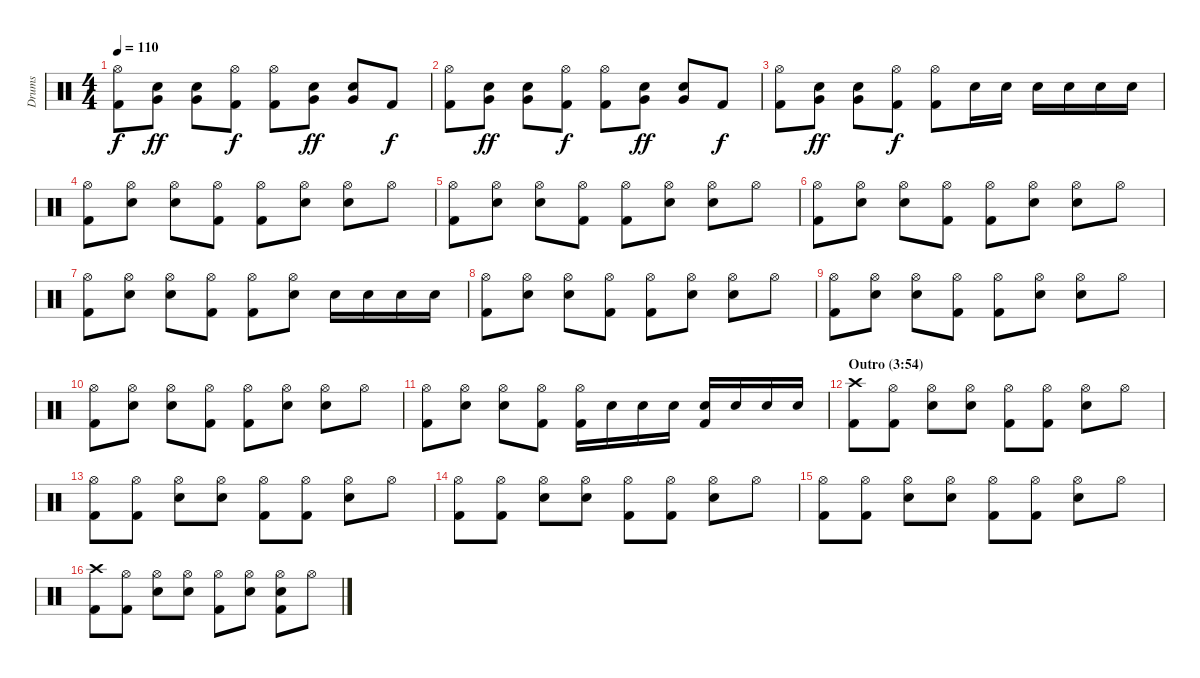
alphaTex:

\track ("Drums" "Drums") {instrument percussion}
\staff {score}
\articulation defaults
\ts (4 4)
\tempo 110
\clef neutral
\ks c
("Hi-Hat (open)" "Kick (hit) 2").8{dy f} ("Snare (hit) 2" "Very Low Tom (hit)").8{dy ff} ("Snare (hit) 2" "Very Low Tom (hit)").8 ("Hi-Hat (open)" "Kick (hit) 2").8{dy f} ("Hi-Hat (open)" "Kick (hit) 2").8 ("Snare (hit) 2" "Very Low Tom (hit)").8{dy ff} ("Snare (hit) 2" "Very Low Tom (hit)").8 "Kick (hit) 2".8{dy f} |
("Hi-Hat (open)" "Kick (hit) 2").8 ("Snare (hit) 2" "Very Low Tom (hit)").8{dy ff} ("Snare (hit) 2" "Very Low Tom (hit)").8 ("Hi-Hat (open)" "Kick (hit) 2").8{dy f} ("Hi-Hat (open)" "Kick (hit) 2").8 ("Snare (hit) 2" "Very Low Tom (hit)").8{dy ff} ("Snare (hit) 2" "Very Low Tom (hit)").8 "Kick (hit) 2".8{dy f} |
("Hi-Hat (open)" "Kick (hit) 2").8 ("Snare (hit) 2" "Very Low Tom (hit)").8{dy ff} ("Snare (hit) 2" "Very Low Tom (hit)").8 ("Hi-Hat (open)" "Kick (hit) 2").8{dy f} ("Hi-Hat (open)" "Kick (hit) 2").8 "Snare (hit) 2".16 "Snare (hit) 2".16 "Snare (hit) 2".16 "Snare (hit) 2".16 "Snare (hit) 2".16 "Snare (hit) 2".16 |
("Hi-Hat (open)" "Kick (hit) 2").8 ("Hi-Hat (open)" "Snare (hit) 2").8 ("Hi-Hat (open)" "Snare (hit) 2").8 ("Hi-Hat (open)" "Kick (hit) 2").8 ("Hi-Hat (open)" "Kick (hit) 2").8 ("Hi-Hat (open)" "Snare (hit) 2").8 ("Hi-Hat (open)" "Snare (hit) 2").8 "Hi-Hat (open)".8 |
("Hi-Hat (open)" "Kick (hit) 2").8 ("Hi-Hat (open)" "Snare (hit) 2").8 ("Hi-Hat (open)" "Snare (hit) 2").8 ("Hi-Hat (open)" "Kick (hit) 2").8 ("Hi-Hat (open)" "Kick (hit) 2").8 ("Hi-Hat (open)" "Snare (hit) 2").8 ("Hi-Hat (open)" "Snare (hit) 2").8 "Hi-Hat (open)".8 |
("Hi-Hat (open)" "Kick (hit) 2").8 ("Hi-Hat (open)" "Snare (hit) 2").8 ("Hi-Hat (open)" "Snare (hit) 2").8 ("Hi-Hat (open)" "Kick (hit) 2").8 ("Hi-Hat (open)" "Kick (hit) 2").8 ("Hi-Hat (open)" "Snare (hit) 2").8 ("Hi-Hat (open)" "Snare (hit) 2").8 "Hi-Hat (open)".8 |
("Hi-Hat (open)" "Kick (hit) 2").8 ("Hi-Hat (open)" "Snare (hit) 2").8 ("Hi-Hat (open)" "Snare (hit) 2").8 ("Hi-Hat (open)" "Kick (hit) 2").8 ("Hi-Hat (open)" "Kick (hit) 2").8 ("Hi-Hat (open)" "Snare (hit) 2").8 "Snare (hit) 2".16 "Snare (hit) 2".16 "Snare (hit) 2".16 "Snare (hit) 2".16 |
("Hi-Hat (open)" "Kick (hit) 2").8 ("Hi-Hat (open)" "Snare (hit) 2").8 ("Hi-Hat (open)" "Snare (hit) 2").8 ("Hi-Hat (open)" "Kick (hit) 2").8 ("Hi-Hat (open)" "Kick (hit) 2").8 ("Hi-Hat (open)" "Snare (hit) 2").8 ("Hi-Hat (open)" "Snare (hit) 2").8 "Hi-Hat (open)".8 |
("Hi-Hat (open)" "Kick (hit) 2").8 ("Hi-Hat (open)" "Snare (hit) 2").8 ("Hi-Hat (open)" "Snare (hit) 2").8 ("Hi-Hat (open)" "Kick (hit) 2").8 ("Hi-Hat (open)" "Kick (hit) 2").8 ("Hi-Hat (open)" "Snare (hit) 2").8 ("Hi-Hat (open)" "Snare (hit) 2").8 "Hi-Hat (open)".8 |
("Hi-Hat (open)" "Kick (hit) 2").8 ("Hi-Hat (open)" "Snare (hit) 2").8 ("Hi-Hat (open)" "Snare (hit) 2").8 ("Hi-Hat (open)" "Kick (hit) 2").8 ("Hi-Hat (open)" "Kick (hit) 2").8 ("Hi-Hat (open)" "Snare (hit) 2").8 ("Hi-Hat (open)" "Snare (hit) 2").8 "Hi-Hat (open)".8 |
("Hi-Hat (open)" "Kick (hit) 2").8 ("Hi-Hat (open)" "Snare (hit) 2").8 ("Hi-Hat (open)" "Snare (hit) 2").8 ("Hi-Hat (open)" "Kick (hit) 2").8 ("Hi-Hat (open)" "Kick (hit) 2").16 "Snare (hit) 2".16 "Snare (hit) 2".16 "Snare (hit) 2".16 ("Snare (hit) 2" "Kick (hit) 2").16 "Snare (hit) 2".16 "Snare (hit) 2".16 "Snare (hit) 2".16 |
\section ("" "Outro (3:54)")
("Crash high (hit)" "Kick (hit) 2").8 ("Hi-Hat (open)" "Kick (hit) 2").8 ("Hi-Hat (open)" "Snare (hit) 2").8 ("Hi-Hat (open)" "Snare (hit) 2").8 ("Hi-Hat (open)" "Kick (hit) 2").8 ("Hi-Hat (open)" "Kick (hit) 2").8 ("Hi-Hat (open)" "Snare (hit) 2").8 "Hi-Hat (open)".8 |
("Hi-Hat (open)" "Kick (hit) 2").8 ("Hi-Hat (open)" "Kick (hit) 2").8 ("Hi-Hat (open)" "Snare (hit) 2").8 ("Hi-Hat (open)" "Snare (hit) 2").8 ("Hi-Hat (open)" "Kick (hit) 2").8 ("Hi-Hat (open)" "Kick (hit) 2").8 ("Hi-Hat (open)" "Snare (hit) 2").8 "Hi-Hat (open)".8 |
("Hi-Hat (open)" "Kick (hit) 2").8 ("Hi-Hat (open)" "Kick (hit) 2").8 ("Hi-Hat (open)" "Snare (hit) 2").8 ("Hi-Hat (open)" "Snare (hit) 2").8 ("Hi-Hat (open)" "Kick (hit) 2").8 ("Hi-Hat (open)" "Kick (hit) 2").8 ("Hi-Hat (open)" "Snare (hit) 2").8 "Hi-Hat (open)".8 |
("Hi-Hat (open)" "Kick (hit) 2").8 ("Hi-Hat (open)" "Kick (hit) 2").8 ("Hi-Hat (open)" "Snare (hit) 2").8 ("Hi-Hat (open)" "Snare (hit) 2").8 ("Hi-Hat (open)" "Kick (hit) 2").8 ("Hi-Hat (open)" "Kick (hit) 2").8 ("Hi-Hat (open)" "Snare (hit) 2").8 "Hi-Hat (open)".8 |
("Crash high (hit)" "Kick (hit) 2").8 ("Hi-Hat (open)" "Kick (hit) 2").8 ("Hi-Hat (open)" "Snare (hit) 2").8 ("Hi-Hat (open)" "Snare (hit) 2").8 ("Hi-Hat (open)" "Kick (hit) 2").8 ("Hi-Hat (open)" "Snare (hit) 2").8 ("Hi-Hat (open)" "Snare (hit) 2" "Kick (hit) 2").8 "Hi-Hat (open)".8
